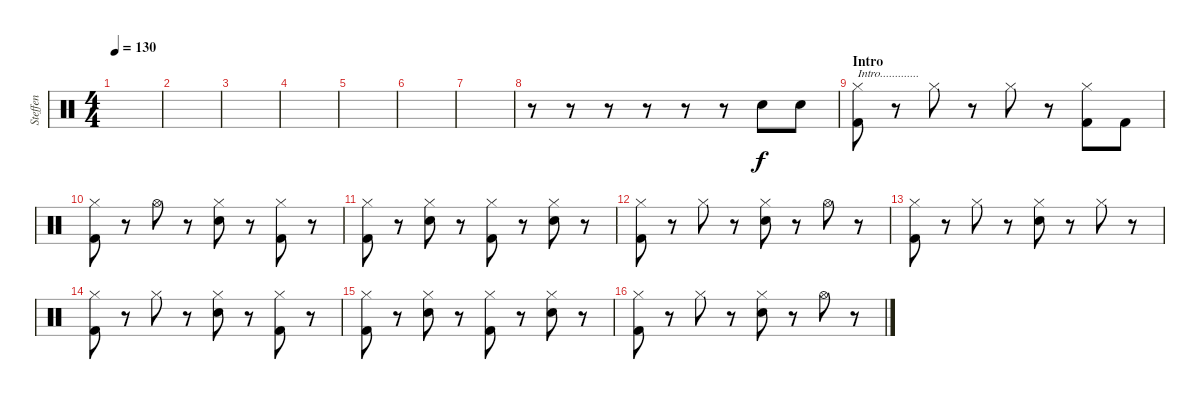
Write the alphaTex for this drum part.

\track ("Steffen" "Steffen") {instrument percussion}
\staff {score}
\articulation defaults
\ts (4 4)
\tempo 130
\clef neutral
\ks c
|
|
|
|
|
|
|
r.8 r.8 r.8 r.8 r.8 r.8 "Snare (hit) 2".8 "Snare (hit) 2".8 |
\section ("" "Intro")
("Hi-Hat (closed)" "Kick (hit) 2").8{txt "Intro............."} r.8 "Hi-Hat (closed)".8 r.8 "Hi-Hat (closed)".8 r.8 ("Hi-Hat (closed)" "Kick (hit) 2").8 "Kick (hit) 2".8 |
("Hi-Hat (closed)" "Kick (hit) 2").8 r.8 "Hi-Hat (open)".8 r.8 ("Hi-Hat (closed)" "Snare (hit) 2").8 r.8 ("Hi-Hat (closed)" "Kick (hit) 2").8 r.8 |
("Hi-Hat (closed)" "Kick (hit) 2").8 r.8 ("Hi-Hat (closed)" "Snare (hit) 2").8 r.8 ("Hi-Hat (closed)" "Kick (hit) 2").8 r.8 ("Hi-Hat (closed)" "Snare (hit) 2").8 r.8 |
("Hi-Hat (closed)" "Kick (hit) 2").8 r.8 "Hi-Hat (closed)".8 r.8 ("Hi-Hat (closed)" "Snare (hit) 2").8 r.8 "Hi-Hat (open)".8 r.8 |
("Hi-Hat (closed)" "Kick (hit) 2").8 r.8 "Hi-Hat (closed)".8 r.8 ("Hi-Hat (closed)" "Snare (hit) 2").8 r.8 "Hi-Hat (closed)".8 r.8 |
("Hi-Hat (closed)" "Kick (hit) 2").8 r.8 "Hi-Hat (closed)".8 r.8 ("Hi-Hat (closed)" "Snare (hit) 2").8 r.8 ("Hi-Hat (closed)" "Kick (hit) 2").8 r.8 |
("Hi-Hat (closed)" "Kick (hit) 2").8 r.8 ("Hi-Hat (closed)" "Snare (hit) 2").8 r.8 ("Hi-Hat (closed)" "Kick (hit) 2").8 r.8 ("Hi-Hat (closed)" "Snare (hit) 2").8 r.8 |
("Hi-Hat (closed)" "Kick (hit) 2").8 r.8 "Hi-Hat (closed)".8 r.8 ("Hi-Hat (closed)" "Snare (hit) 2").8 r.8 "Hi-Hat (open)".8 r.8
